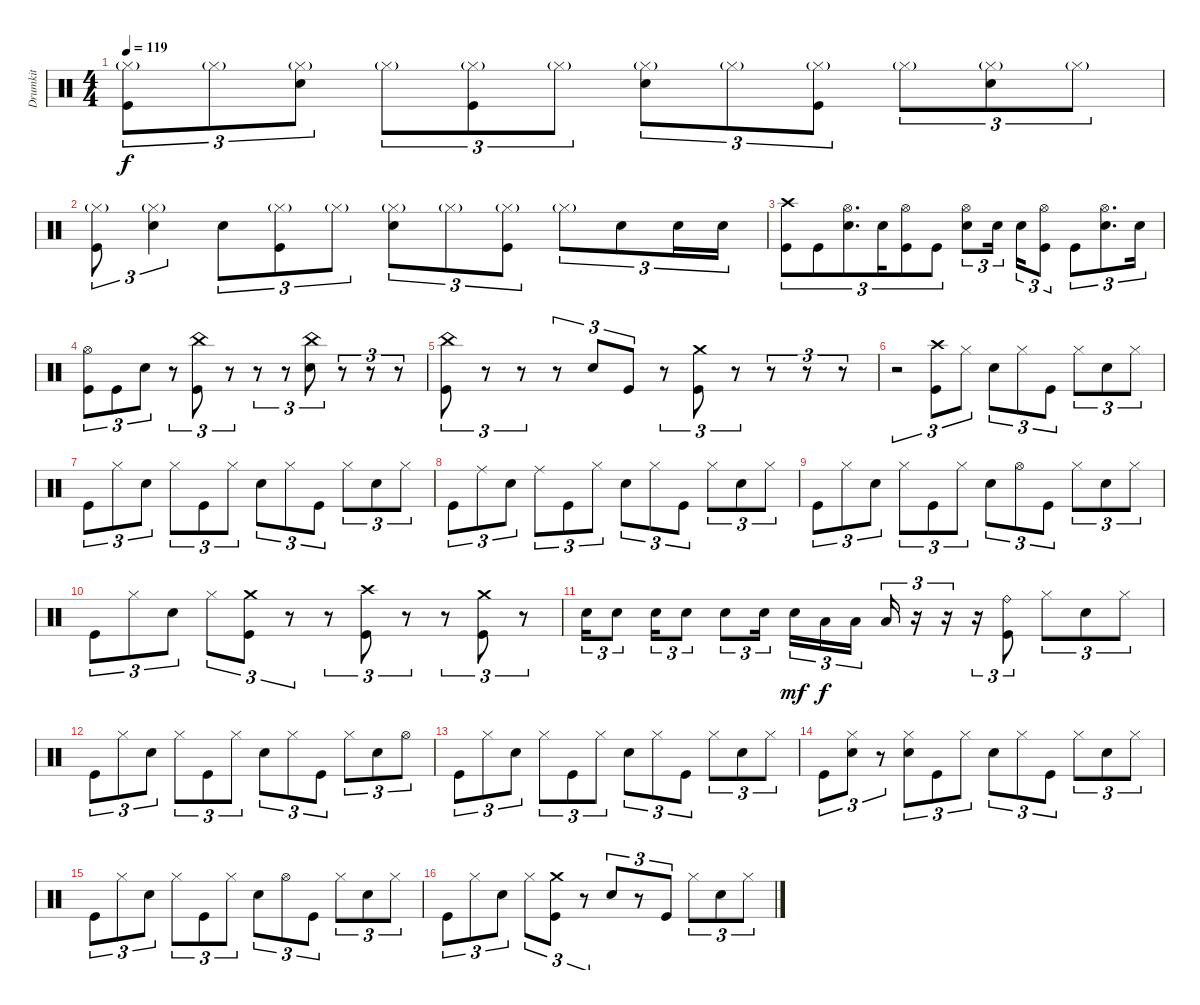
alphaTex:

\track ("Drumkit" "Drumkit") {instrument percussion}
\staff {score}
\articulation defaults
\ts (4 4)
\tempo 119
\clef neutral
\ks c
("Kick (hit)" "Hi-Hat (closed)"{g}).8{tu (3 2) dy f} "Hi-Hat (closed)"{g}.8{tu (3 2)} ("Hi-Hat (closed)"{g} "Snare (hit) 2").8{tu (3 2)} "Hi-Hat (closed)"{g}.8{tu (3 2)} ("Hi-Hat (closed)"{g} "Kick (hit)").8{tu (3 2)} "Hi-Hat (closed)"{g}.8{tu (3 2)} ("Hi-Hat (closed)"{g} "Snare (hit) 2").8{tu (3 2)} "Hi-Hat (closed)"{g}.8{tu (3 2)} ("Hi-Hat (closed)"{g} "Kick (hit)").8{tu (3 2)} "Hi-Hat (closed)"{g}.8{tu (3 2)} ("Hi-Hat (closed)"{g} "Snare (hit) 2").8{tu (3 2)} "Hi-Hat (closed)"{g}.8{tu (3 2)} |
("Kick (hit)" "Hi-Hat (closed)"{g}).8{tu (3 2)} ("Snare (hit) 2" "Hi-Hat (closed)"{g}).4{tu (3 2)} "Snare (hit) 2".8{tu (3 2)} ("Kick (hit)" "Hi-Hat (closed)"{g}).8{tu (3 2)} "Hi-Hat (closed)"{g}.8{tu (3 2)} ("Hi-Hat (closed)"{g} "Snare (hit) 2").8{tu (3 2)} "Hi-Hat (closed)"{g}.8{tu (3 2)} ("Hi-Hat (closed)"{g} "Kick (hit)").8{tu (3 2)} "Hi-Hat (closed)"{g}.8{tu (3 2)} "Snare (hit) 2".8{tu (3 2)} "Snare (hit) 2".16{tu (3 2)} "Snare (hit) 2".16{tu (3 2)} |
("Kick (hit)" "Crash high (hit)").8{tu (3 2)} "Kick (hit)".8{tu (3 2)} ("Snare (hit) 2" "Hi-Hat (open)").8{d tu (3 2)} "Snare (hit) 2".16{tu (3 2)} ("Kick (hit)" "Hi-Hat (open)").8{tu (3 2)} "Kick (hit)".8{tu (3 2)} ("Snare (hit) 2" "Hi-Hat (open)").8{tu (3 2)} "Snare (hit) 2".16{tu (3 2)} "Snare (hit) 2".16{tu (3 2)} ("Kick (hit)" "Hi-Hat (open)").8{tu (3 2)} "Kick (hit)".8{tu (3 2)} ("Snare (hit) 2" "Hi-Hat (open)").8{d tu (3 2)} "Snare (hit) 2".16{tu (3 2)} |
("Kick (hit)" "Hi-Hat (open)").8{tu (3 2)} "Kick (hit)".8{tu (3 2)} "Snare (hit) 2".8{tu (3 2)} r.8{tu (3 2)} ("Kick (hit)" "China (hit)").8{tu (3 2)} r.8{tu (3 2)} r.8{tu (3 2)} r.8{tu (3 2)} ("Snare (hit) 2" "China (hit)").8{tu (3 2)} r.8{tu (3 2)} r.8{tu (3 2)} r.8{tu (3 2)} |
("Kick (hit)" "China (hit)").8{tu (3 2)} r.8{tu (3 2)} r.8{tu (3 2)} r.8{tu (3 2)} "Snare (hit) 2".8{tu (3 2)} "Kick (hit)".8{tu (3 2)} r.8{tu (3 2)} ("Crash medium (hit)" "Kick (hit)").8{tu (3 2)} r.8{tu (3 2)} r.8{tu (3 2)} r.8{tu (3 2)} r.8{tu (3 2)} |
r.2{tu (3 2)} ("Kick (hit)" "Crash high (hit)").8{tu (3 2)} "Hi-Hat (closed)".8{tu (3 2)} "Snare (hit) 2".8{tu (3 2)} "Hi-Hat (closed)".8{tu (3 2)} "Kick (hit)".8{tu (3 2)} "Hi-Hat (closed)".8{tu (3 2)} "Snare (hit) 2".8{tu (3 2)} "Hi-Hat (closed)".8{tu (3 2)} |
"Kick (hit)".8{tu (3 2)} "Hi-Hat (closed)".8{tu (3 2)} "Snare (hit) 2".8{tu (3 2)} "Hi-Hat (closed)".8{tu (3 2)} "Kick (hit)".8{tu (3 2)} "Hi-Hat (closed)".8{tu (3 2)} "Snare (hit) 2".8{tu (3 2)} "Hi-Hat (closed)".8{tu (3 2)} "Kick (hit)".8{tu (3 2)} "Hi-Hat (closed)".8{tu (3 2)} "Snare (hit) 2".8{tu (3 2)} "Hi-Hat (closed)".8{tu (3 2)} |
"Kick (hit)".8{tu (3 2)} "Ride (middle)".8{tu (3 2)} "Snare (hit) 2".8{tu (3 2)} "Ride (middle)".8{tu (3 2)} "Kick (hit)".8{tu (3 2)} "Hi-Hat (closed)".8{tu (3 2)} "Snare (hit) 2".8{tu (3 2)} "Hi-Hat (closed)".8{tu (3 2)} "Kick (hit)".8{tu (3 2)} "Hi-Hat (closed)".8{tu (3 2)} "Snare (hit) 2".8{tu (3 2)} "Hi-Hat (closed)".8{tu (3 2)} |
"Kick (hit)".8{tu (3 2)} "Hi-Hat (closed)".8{tu (3 2)} "Snare (hit) 2".8{tu (3 2)} "Hi-Hat (closed)".8{tu (3 2)} "Kick (hit)".8{tu (3 2)} "Hi-Hat (closed)".8{tu (3 2)} "Snare (hit) 2".8{tu (3 2)} "Hi-Hat (open)".8{tu (3 2)} "Kick (hit)".8{tu (3 2)} "Hi-Hat (closed)".8{tu (3 2)} "Snare (hit) 2".8{tu (3 2)} "Hi-Hat (closed)".8{tu (3 2)} |
"Kick (hit)".8{tu (3 2)} "Hi-Hat (closed)".8{tu (3 2)} "Snare (hit) 2".8{tu (3 2)} "Hi-Hat (closed)".8{tu (3 2)} ("Kick (hit)" "Crash medium (hit)").8{tu (3 2)} r.8{tu (3 2)} r.8{tu (3 2)} ("Kick (hit)" "Crash high (hit)").8{tu (3 2)} r.8{tu (3 2)} r.8{tu (3 2)} ("Kick (hit)" "Crash medium (hit)").8{tu (3 2)} r.8{tu (3 2)} |
"Snare (hit) 2".16{tu (3 2)} "Snare (hit) 2".8{tu (3 2)} "Snare (hit) 2".16{tu (3 2)} "Snare (hit) 2".8{tu (3 2)} "Snare (hit) 2".8{tu (3 2)} "Snare (hit) 2".16{tu (3 2)} "Snare (hit) 2".16{tu (3 2) dy mf} "Low Tom (hit)".16{tu (3 2) dy f} "Low Tom (hit)".16{tu (3 2)} "Low Tom (hit)".16{tu (3 2)} r.16{tu (3 2)} r.16{tu (3 2)} r.16{tu (3 2)} ("Kick (hit)" "Ride (bell)").8{tu (3 2)} "Hi-Hat (closed)".8{tu (3 2)} "Snare (hit) 2".8{tu (3 2)} "Hi-Hat (closed)".8{tu (3 2)} |
"Kick (hit)".8{tu (3 2)} "Hi-Hat (closed)".8{tu (3 2)} "Snare (hit) 2".8{tu (3 2)} "Hi-Hat (closed)".8{tu (3 2)} "Kick (hit)".8{tu (3 2)} "Hi-Hat (closed)".8{tu (3 2)} "Snare (hit) 2".8{tu (3 2)} "Hi-Hat (closed)".8{tu (3 2)} "Kick (hit)".8{tu (3 2)} "Hi-Hat (closed)".8{tu (3 2)} "Snare (hit) 2".8{tu (3 2)} "Hi-Hat (open)".8{tu (3 2)} |
"Kick (hit)".8{tu (3 2)} "Hi-Hat (closed)".8{tu (3 2)} "Snare (hit) 2".8{tu (3 2)} "Hi-Hat (closed)".8{tu (3 2)} "Kick (hit)".8{tu (3 2)} "Hi-Hat (closed)".8{tu (3 2)} "Snare (hit) 2".8{tu (3 2)} "Hi-Hat (closed)".8{tu (3 2)} "Kick (hit)".8{tu (3 2)} "Hi-Hat (closed)".8{tu (3 2)} "Snare (hit) 2".8{tu (3 2)} "Hi-Hat (closed)".8{tu (3 2)} |
"Kick (hit)".8{tu (3 2)} ("Snare (hit) 2" "Hi-Hat (closed)").8{tu (3 2)} r.8{tu (3 2)} ("Snare (hit) 2" "Hi-Hat (closed)").8{tu (3 2)} "Kick (hit)".8{tu (3 2)} "Hi-Hat (closed)".8{tu (3 2)} "Snare (hit) 2".8{tu (3 2)} "Hi-Hat (closed)".8{tu (3 2)} "Kick (hit)".8{tu (3 2)} "Hi-Hat (closed)".8{tu (3 2)} "Snare (hit) 2".8{tu (3 2)} "Hi-Hat (closed)".8{tu (3 2)} |
"Kick (hit)".8{tu (3 2)} "Hi-Hat (closed)".8{tu (3 2)} "Snare (hit) 2".8{tu (3 2)} "Hi-Hat (closed)".8{tu (3 2)} "Kick (hit)".8{tu (3 2)} "Hi-Hat (closed)".8{tu (3 2)} "Snare (hit) 2".8{tu (3 2)} "Hi-Hat (open)".8{tu (3 2)} "Kick (hit)".8{tu (3 2)} "Hi-Hat (closed)".8{tu (3 2)} "Snare (hit) 2".8{tu (3 2)} "Hi-Hat (closed)".8{tu (3 2)} |
"Kick (hit)".8{tu (3 2)} "Hi-Hat (closed)".8{tu (3 2)} "Snare (hit) 2".8{tu (3 2)} "Hi-Hat (closed)".8{tu (3 2)} ("Kick (hit)" "Crash medium (hit)").8{tu (3 2)} r.8{tu (3 2)} "Snare (hit) 2".8{tu (3 2)} r.8{tu (3 2)} "Kick (hit)".8{tu (3 2)} "Hi-Hat (closed)".8{tu (3 2)} "Snare (hit) 2".8{tu (3 2)} "Hi-Hat (closed)".8{tu (3 2)}
